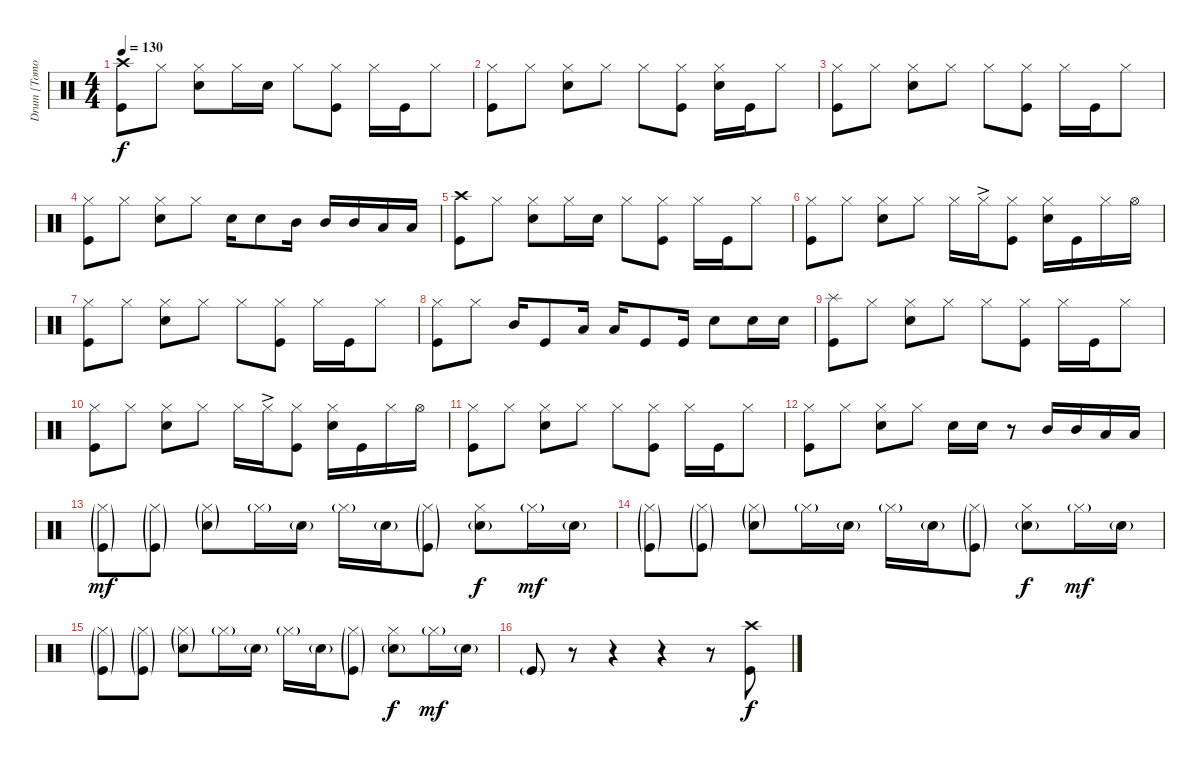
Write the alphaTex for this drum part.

\track ("Drum [Tomoya]" "Drum [Tomo") {instrument percussion}
\staff {score}
\articulation defaults
\ts (4 4)
\tempo 130
\clef neutral
\ks c
("Crash high (hit)" "Kick (hit)").8{dy f} "Hi-Hat (closed)".8 ("Hi-Hat (closed)" "Snare (hit) 2").8 "Hi-Hat (closed)".16 "Snare (hit) 2".16 "Hi-Hat (closed)".8 ("Hi-Hat (closed)" "Kick (hit)").8 "Hi-Hat (closed)".16 "Kick (hit)".16 "Hi-Hat (closed)".8 |
("Hi-Hat (closed)" "Kick (hit)").8 "Hi-Hat (closed)".8 ("Hi-Hat (closed)" "Snare (hit) 2").8 "Hi-Hat (closed)".8 "Hi-Hat (closed)".8 ("Hi-Hat (closed)" "Kick (hit)").8 ("Hi-Hat (closed)" "Snare (hit) 2").16 "Kick (hit)".16 "Hi-Hat (closed)".8 |
("Hi-Hat (closed)" "Kick (hit)").8 "Hi-Hat (closed)".8 ("Hi-Hat (closed)" "Snare (hit) 2").8 "Hi-Hat (closed)".8 "Hi-Hat (closed)".8 ("Hi-Hat (closed)" "Kick (hit)").8 "Hi-Hat (closed)".16 "Kick (hit)".16 "Hi-Hat (closed)".8 |
("Hi-Hat (closed)" "Kick (hit)").8 "Hi-Hat (closed)".8 ("Hi-Hat (closed)" "Snare (hit) 2").8 "Hi-Hat (closed)".8 "Snare (hit) 2".16 "Snare (hit) 2".8 "Mid Tom (hit)".16 "Mid Tom (hit)".16 "Mid Tom (hit)".16 "Low Tom (hit)".16 "Low Tom (hit)".16 |
("Crash high (hit)" "Kick (hit)").8 "Hi-Hat (closed)".8 ("Hi-Hat (closed)" "Snare (hit) 2").8 "Hi-Hat (closed)".16 "Snare (hit) 2".16 "Hi-Hat (closed)".8 ("Hi-Hat (closed)" "Kick (hit)").8 "Hi-Hat (closed)".16 "Kick (hit)".16 "Hi-Hat (closed)".8 |
("Hi-Hat (closed)" "Kick (hit)").8 "Hi-Hat (closed)".8 ("Hi-Hat (closed)" "Snare (hit) 2").8 "Hi-Hat (closed)".8 "Hi-Hat (closed)".16 "Hi-Hat (closed)"{ac}.16 ("Hi-Hat (closed)" "Kick (hit)").8 ("Snare (hit) 2" "Hi-Hat (closed)").16 "Kick (hit)".16 "Hi-Hat (closed)".16 "Hi-Hat (open)".16 |
("Hi-Hat (closed)" "Kick (hit)").8 "Hi-Hat (closed)".8 ("Hi-Hat (closed)" "Snare (hit) 2").8 "Hi-Hat (closed)".8 "Hi-Hat (closed)".8 ("Hi-Hat (closed)" "Kick (hit)").8 "Hi-Hat (closed)".16 "Kick (hit)".16 "Hi-Hat (closed)".8 |
("Hi-Hat (closed)" "Kick (hit)").8 "Hi-Hat (closed)".8 "Mid Tom (hit)".16 "Kick (hit)".8 "Low Tom (hit)".16 "Low Floor Tom (hit)".16 "Kick (hit)".8 "Kick (hit)".16 "Snare (hit) 2".8 "Snare (hit) 2".16 "Snare (hit) 2".16 |
("Splash (hit)" "Kick (hit)").8 "Hi-Hat (closed)".8 ("Hi-Hat (closed)" "Snare (hit) 2").8 "Hi-Hat (closed)".8 "Hi-Hat (closed)".8 ("Hi-Hat (closed)" "Kick (hit)").8 "Hi-Hat (closed)".16 "Kick (hit)".16 "Hi-Hat (closed)".8 |
("Hi-Hat (closed)" "Kick (hit)").8 "Hi-Hat (closed)".8 ("Hi-Hat (closed)" "Snare (hit) 2").8 "Hi-Hat (closed)".8 "Hi-Hat (closed)".16 "Hi-Hat (closed)"{ac}.16 ("Hi-Hat (closed)" "Kick (hit)").8 ("Snare (hit) 2" "Hi-Hat (closed)").16 "Kick (hit)".16 "Hi-Hat (closed)".16 "Hi-Hat (open)".16 |
("Hi-Hat (closed)" "Kick (hit)").8 "Hi-Hat (closed)".8 ("Hi-Hat (closed)" "Snare (hit) 2").8 "Hi-Hat (closed)".8 "Hi-Hat (closed)".8 ("Hi-Hat (closed)" "Kick (hit)").8 "Hi-Hat (closed)".16 "Kick (hit)".16 "Hi-Hat (closed)".8 |
("Hi-Hat (closed)" "Kick (hit)").8 "Hi-Hat (closed)".8 ("Hi-Hat (closed)" "Snare (hit) 2").8 "Hi-Hat (closed)".8 "Snare (hit) 2".16 "Snare (hit) 2".16 r.8 "Mid Tom (hit)".16 "Mid Tom (hit)".16 "Low Tom (hit)".16 "Low Tom (hit)".16 |
("Hi-Hat (closed)"{g} "Kick (hit)"{g}).8{dy mf} ("Hi-Hat (closed)"{g} "Kick (hit)"{g}).8 ("Hi-Hat (closed)"{g} "Snare (hit) 2"{g}).8 "Hi-Hat (closed)"{g}.16 "Snare (hit) 2"{g}.16 "Hi-Hat (closed)"{g}.16 "Snare (hit) 2"{g}.16 ("Hi-Hat (closed)"{g} "Kick (hit)"{g}).8 ("Hi-Hat (closed)" "Snare (hit) 2"{g}).8{dy f} "Hi-Hat (closed)"{g}.16{dy mf} "Snare (hit) 2"{g}.16 |
("Hi-Hat (closed)"{g} "Kick (hit)"{g}).8 ("Hi-Hat (closed)"{g} "Kick (hit)"{g}).8 ("Hi-Hat (closed)"{g} "Snare (hit) 2"{g}).8 "Hi-Hat (closed)"{g}.16 "Snare (hit) 2"{g}.16 "Hi-Hat (closed)"{g}.16 "Snare (hit) 2"{g}.16 ("Hi-Hat (closed)"{g} "Kick (hit)"{g}).8 ("Hi-Hat (closed)" "Snare (hit) 2"{g}).8{dy f} "Hi-Hat (closed)"{g}.16{dy mf} "Snare (hit) 2"{g}.16 |
("Hi-Hat (closed)"{g} "Kick (hit)"{g}).8 ("Hi-Hat (closed)"{g} "Kick (hit)"{g}).8 ("Hi-Hat (closed)"{g} "Snare (hit) 2"{g}).8 "Hi-Hat (closed)"{g}.16 "Snare (hit) 2"{g}.16 "Hi-Hat (closed)"{g}.16 "Snare (hit) 2"{g}.16 ("Hi-Hat (closed)"{g} "Kick (hit)"{g}).8 ("Hi-Hat (closed)" "Snare (hit) 2"{g}).8{dy f} "Hi-Hat (closed)"{g}.16{dy mf} "Snare (hit) 2"{g}.16 |
"Kick (hit)"{g}.8 r.8 r.4 r.4 r.8 ("Crash high (hit)" "Kick (hit)").8{dy f}
